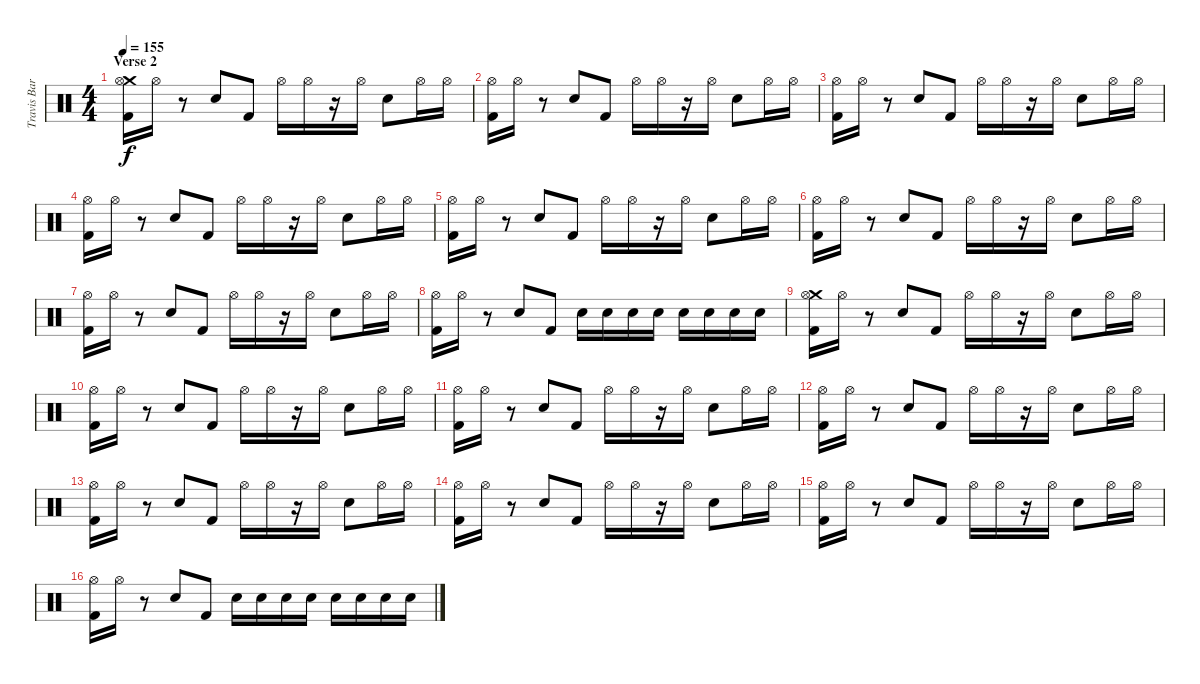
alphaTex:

\track ("Travis Barker Drums" "Travis Bar") {instrument percussion}
\staff {score}
\articulation defaults
\ts (4 4)
\section ("" "Verse 2")
\tempo 155
\clef neutral
\ks c
("Crash medium (hit)" "Hi-Hat (open)" "Kick (hit) 2").16{dy f} "Hi-Hat (open)".16 r.8 "Electric Snare (hit)".8 "Kick (hit) 2".8 "Hi-Hat (open)".16 "Hi-Hat (open)".16 r.16 "Hi-Hat (open)".16 "Electric Snare (hit)".8 "Hi-Hat (open)".16 "Hi-Hat (open)".16 |
("Hi-Hat (open)" "Kick (hit) 2").16 "Hi-Hat (open)".16 r.8 "Electric Snare (hit)".8 "Kick (hit) 2".8 "Hi-Hat (open)".16 "Hi-Hat (open)".16 r.16 "Hi-Hat (open)".16 "Electric Snare (hit)".8 "Hi-Hat (open)".16 "Hi-Hat (open)".16 |
("Hi-Hat (open)" "Kick (hit) 2").16 "Hi-Hat (open)".16 r.8 "Electric Snare (hit)".8 "Kick (hit) 2".8 "Hi-Hat (open)".16 "Hi-Hat (open)".16 r.16 "Hi-Hat (open)".16 "Electric Snare (hit)".8 "Hi-Hat (open)".16 "Hi-Hat (open)".16 |
("Hi-Hat (open)" "Kick (hit) 2").16 "Hi-Hat (open)".16 r.8 "Electric Snare (hit)".8 "Kick (hit) 2".8 "Hi-Hat (open)".16 "Hi-Hat (open)".16 r.16 "Hi-Hat (open)".16 "Electric Snare (hit)".8 "Hi-Hat (open)".16 "Hi-Hat (open)".16 |
("Hi-Hat (open)" "Kick (hit) 2").16 "Hi-Hat (open)".16 r.8 "Electric Snare (hit)".8 "Kick (hit) 2".8 "Hi-Hat (open)".16 "Hi-Hat (open)".16 r.16 "Hi-Hat (open)".16 "Electric Snare (hit)".8 "Hi-Hat (open)".16 "Hi-Hat (open)".16 |
("Hi-Hat (open)" "Kick (hit) 2").16 "Hi-Hat (open)".16 r.8 "Electric Snare (hit)".8 "Kick (hit) 2".8 "Hi-Hat (open)".16 "Hi-Hat (open)".16 r.16 "Hi-Hat (open)".16 "Electric Snare (hit)".8 "Hi-Hat (open)".16 "Hi-Hat (open)".16 |
("Hi-Hat (open)" "Kick (hit) 2").16 "Hi-Hat (open)".16 r.8 "Electric Snare (hit)".8 "Kick (hit) 2".8 "Hi-Hat (open)".16 "Hi-Hat (open)".16 r.16 "Hi-Hat (open)".16 "Electric Snare (hit)".8 "Hi-Hat (open)".16 "Hi-Hat (open)".16 |
("Hi-Hat (open)" "Kick (hit) 2").16 "Hi-Hat (open)".16 r.8 "Electric Snare (hit)".8 "Kick (hit) 2".8 "Electric Snare (hit)".16 "Electric Snare (hit)".16 "Electric Snare (hit)".16 "Electric Snare (hit)".16 "Electric Snare (hit)".16 "Electric Snare (hit)".16 "Electric Snare (hit)".16 "Electric Snare (hit)".16 |
("Crash medium (hit)" "Hi-Hat (open)" "Kick (hit) 2").16 "Hi-Hat (open)".16 r.8 "Electric Snare (hit)".8 "Kick (hit) 2".8 "Hi-Hat (open)".16 "Hi-Hat (open)".16 r.16 "Hi-Hat (open)".16 "Electric Snare (hit)".8 "Hi-Hat (open)".16 "Hi-Hat (open)".16 |
("Hi-Hat (open)" "Kick (hit) 2").16 "Hi-Hat (open)".16 r.8 "Electric Snare (hit)".8 "Kick (hit) 2".8 "Hi-Hat (open)".16 "Hi-Hat (open)".16 r.16 "Hi-Hat (open)".16 "Electric Snare (hit)".8 "Hi-Hat (open)".16 "Hi-Hat (open)".16 |
("Hi-Hat (open)" "Kick (hit) 2").16 "Hi-Hat (open)".16 r.8 "Electric Snare (hit)".8 "Kick (hit) 2".8 "Hi-Hat (open)".16 "Hi-Hat (open)".16 r.16 "Hi-Hat (open)".16 "Electric Snare (hit)".8 "Hi-Hat (open)".16 "Hi-Hat (open)".16 |
("Hi-Hat (open)" "Kick (hit) 2").16 "Hi-Hat (open)".16 r.8 "Electric Snare (hit)".8 "Kick (hit) 2".8 "Hi-Hat (open)".16 "Hi-Hat (open)".16 r.16 "Hi-Hat (open)".16 "Electric Snare (hit)".8 "Hi-Hat (open)".16 "Hi-Hat (open)".16 |
("Hi-Hat (open)" "Kick (hit) 2").16 "Hi-Hat (open)".16 r.8 "Electric Snare (hit)".8 "Kick (hit) 2".8 "Hi-Hat (open)".16 "Hi-Hat (open)".16 r.16 "Hi-Hat (open)".16 "Electric Snare (hit)".8 "Hi-Hat (open)".16 "Hi-Hat (open)".16 |
("Hi-Hat (open)" "Kick (hit) 2").16 "Hi-Hat (open)".16 r.8 "Electric Snare (hit)".8 "Kick (hit) 2".8 "Hi-Hat (open)".16 "Hi-Hat (open)".16 r.16 "Hi-Hat (open)".16 "Electric Snare (hit)".8 "Hi-Hat (open)".16 "Hi-Hat (open)".16 |
("Hi-Hat (open)" "Kick (hit) 2").16 "Hi-Hat (open)".16 r.8 "Electric Snare (hit)".8 "Kick (hit) 2".8 "Hi-Hat (open)".16 "Hi-Hat (open)".16 r.16 "Hi-Hat (open)".16 "Electric Snare (hit)".8 "Hi-Hat (open)".16 "Hi-Hat (open)".16 |
("Hi-Hat (open)" "Kick (hit) 2").16 "Hi-Hat (open)".16 r.8 "Electric Snare (hit)".8 "Kick (hit) 2".8 "Electric Snare (hit)".16 "Electric Snare (hit)".16 "Electric Snare (hit)".16 "Electric Snare (hit)".16 "Electric Snare (hit)".16 "Electric Snare (hit)".16 "Electric Snare (hit)".16 "Electric Snare (hit)".16
